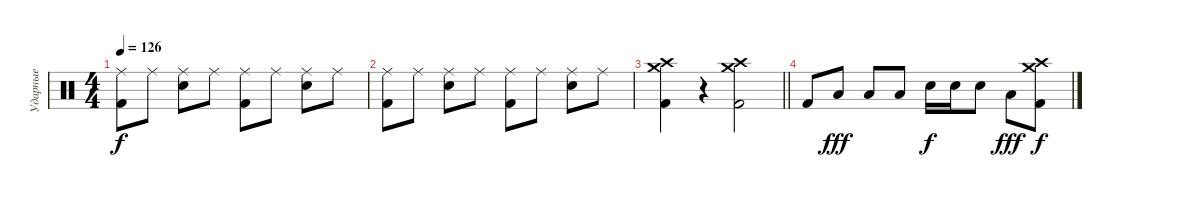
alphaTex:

\track ("Ударные" "Ударные") {instrument percussion}
\staff {score}
\articulation defaults
\ts (4 4)
\tempo 126
\clef neutral
\ks c
("Kick (hit) 2" "Ride (middle)").8{dy f} "Ride (middle)".8 ("Snare (hit) 2" "Ride (middle)").8 "Ride (middle)".8 ("Kick (hit) 2" "Ride (middle)").8 "Ride (middle)".8 ("Snare (hit) 2" "Ride (middle)").8 "Ride (middle)".8 |
("Kick (hit) 2" "Ride (middle)").8 "Ride (middle)".8 ("Snare (hit) 2" "Ride (middle)").8 "Ride (middle)".8 ("Kick (hit) 2" "Ride (middle)").8 "Ride (middle)".8 ("Snare (hit) 2" "Ride (middle)").8 "Ride (middle)".8 |
\barLineRight lightlight
("Kick (hit) 2" "Crash high (hit)" "Crash medium (hit)").4 r.4 ("Kick (hit) 2" "Crash high (hit)" "Crash medium (hit)").2 |
"Kick (hit) 2".8 "Low Tom (hit)".8{dy fff} "Low Tom (hit)".8 "Low Tom (hit)".8 "Snare (hit) 2".16{dy f} "Snare (hit) 2".16 "Snare (hit) 2".8 "Low Tom (hit)".8{dy fff} ("Kick (hit) 2" "Crash high (hit)" "Crash medium (hit)").8{dy f}
